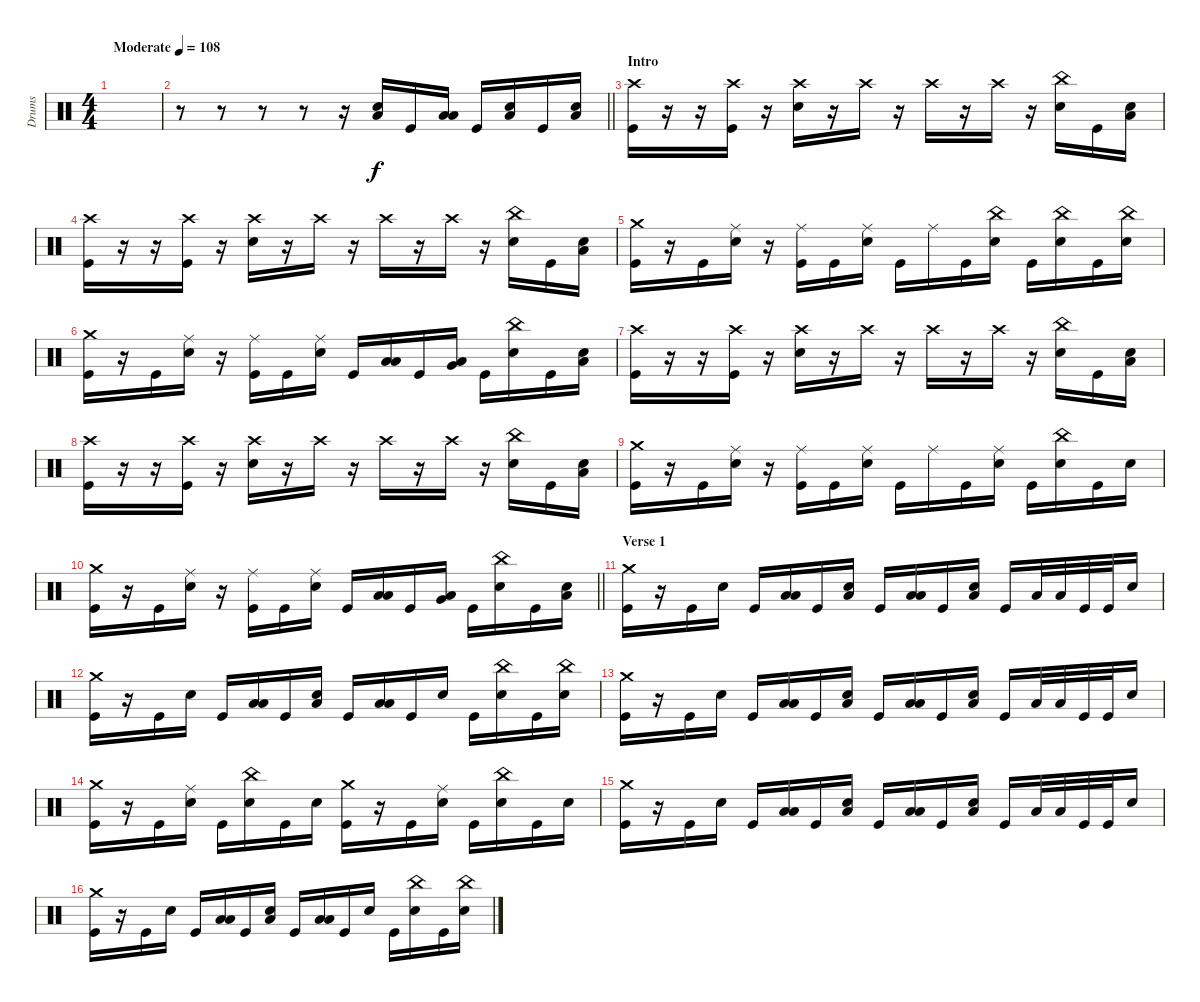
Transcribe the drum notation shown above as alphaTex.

\track ("Drums" "Drums") {instrument percussion}
\staff {score}
\articulation defaults
\ts (4 4)
\tempo (108 "Moderate")
\clef neutral
\ks c
|
\barLineRight lightlight
r.8 r.8 r.8 r.8 r.16 ("Snare (hit) 2" "Low Floor Tom (hit)").16 "Kick (hit)".16 ("Low Tom (hit)" "Low Floor Tom (hit)").16 "Kick (hit)".16 ("Snare (hit) 2" "Low Floor Tom (hit)").16 "Kick (hit)".16 ("Snare (hit) 2" "Low Floor Tom (hit)").16 |
\section ("" "Intro")
("Crash high (hit)" "Kick (hit)").16 r.16 r.16 ("Crash high (hit)" "Kick (hit)").16 r.16 ("Crash high (hit)" "Snare (hit) 2").16 r.16 "Crash high (hit)".16 r.16 "Crash high (hit)".16 r.16 "Crash high (hit)".16 r.16 ("China (hit)" "Snare (hit) 2").16 "Kick (hit)".16 ("Snare (hit) 2" "Low Floor Tom (hit)").16 |
("Crash high (hit)" "Kick (hit)").16 r.16 r.16 ("Crash high (hit)" "Kick (hit)").16 r.16 ("Crash high (hit)" "Snare (hit) 2").16 r.16 "Crash high (hit)".16 r.16 "Crash high (hit)".16 r.16 "Crash high (hit)".16 r.16 ("China (hit)" "Snare (hit) 2").16 "Kick (hit)".16 ("Snare (hit) 2" "Low Floor Tom (hit)").16 |
("Crash medium (hit)" "Kick (hit)").16 r.16 "Kick (hit)".16 ("Ride (middle)" "Snare (hit) 2").16 r.16 ("Ride (middle)" "Kick (hit)").16 "Kick (hit)".16 ("Ride (middle)" "Snare (hit) 2").16 "Kick (hit)".16 "Ride (middle)".16 "Kick (hit)".16 ("China (hit)" "Snare (hit) 2").16 "Kick (hit)".16 ("China (hit)" "Snare (hit) 2").16 "Kick (hit)".16 ("China (hit)" "Snare (hit) 2").16 |
("Crash medium (hit)" "Kick (hit)").16 r.16 "Kick (hit)".16 ("Ride (middle)" "Snare (hit) 2").16 r.16 ("Ride (middle)" "Kick (hit)").16 "Kick (hit)".16 ("Ride (middle)" "Snare (hit) 2").16 "Kick (hit)".16 ("Low Tom (hit)" "Low Floor Tom (hit)").16 "Kick (hit)".16 ("Very Low Tom (hit)" "Low Floor Tom (hit)").16 "Kick (hit)".16 ("China (hit)" "Snare (hit) 2").16 "Kick (hit)".16 ("Snare (hit) 2" "Low Floor Tom (hit)").16 |
("Crash high (hit)" "Kick (hit)").16 r.16 r.16 ("Crash high (hit)" "Kick (hit)").16 r.16 ("Crash high (hit)" "Snare (hit) 2").16 r.16 "Crash high (hit)".16 r.16 "Crash high (hit)".16 r.16 "Crash high (hit)".16 r.16 ("China (hit)" "Snare (hit) 2").16 "Kick (hit)".16 ("Snare (hit) 2" "Low Floor Tom (hit)").16 |
("Crash high (hit)" "Kick (hit)").16 r.16 r.16 ("Crash high (hit)" "Kick (hit)").16 r.16 ("Crash high (hit)" "Snare (hit) 2").16 r.16 "Crash high (hit)".16 r.16 "Crash high (hit)".16 r.16 "Crash high (hit)".16 r.16 ("China (hit)" "Snare (hit) 2").16 "Kick (hit)".16 ("Snare (hit) 2" "Low Floor Tom (hit)").16 |
("Crash medium (hit)" "Kick (hit)").16 r.16 "Kick (hit)".16 ("Ride (middle)" "Snare (hit) 2").16 r.16 ("Ride (middle)" "Kick (hit)").16 "Kick (hit)".16 ("Ride (middle)" "Snare (hit) 2").16 "Kick (hit)".16 "Ride (middle)".16 "Kick (hit)".16 ("Ride (middle)" "Snare (hit) 2").16 "Kick (hit)".16 ("China (hit)" "Snare (hit) 2").16 "Kick (hit)".16 "Snare (hit) 2".16 |
\barLineRight lightlight
("Crash medium (hit)" "Kick (hit)").16 r.16 "Kick (hit)".16 ("Ride (middle)" "Snare (hit) 2").16 r.16 ("Ride (middle)" "Kick (hit)").16 "Kick (hit)".16 ("Ride (middle)" "Snare (hit) 2").16 "Kick (hit)".16 ("Low Tom (hit)" "Low Floor Tom (hit)").16 "Kick (hit)".16 ("Very Low Tom (hit)" "Low Floor Tom (hit)").16 "Kick (hit)".16 ("China (hit)" "Snare (hit) 2").16 "Kick (hit)".16 ("Snare (hit) 2" "Low Floor Tom (hit)").16 |
\section ("" "Verse 1")
("Crash medium (hit)" "Kick (hit)").16 r.16 "Kick (hit)".16 "Snare (hit) 2".16 "Kick (hit)".16 ("Low Tom (hit)" "Low Floor Tom (hit)").16 "Kick (hit)".16 ("Snare (hit) 2" "Low Floor Tom (hit)").16 "Kick (hit)".16 ("Low Tom (hit)" "Low Floor Tom (hit)").16 "Kick (hit)".16 ("Snare (hit) 2" "Low Floor Tom (hit)").16 "Kick (hit)".16 "Low Tom (hit)".32 "Low Floor Tom (hit)".32 "Kick (hit)".32 "Kick (hit)".32 "Snare (hit) 2".16 |
("Crash medium (hit)" "Kick (hit)").16 r.16 "Kick (hit)".16 "Snare (hit) 2".16 "Kick (hit)".16 ("Low Tom (hit)" "Low Floor Tom (hit)").16 "Kick (hit)".16 ("Snare (hit) 2" "Low Floor Tom (hit)").16 "Kick (hit)".16 ("Low Tom (hit)" "Low Floor Tom (hit)").16 "Kick (hit)".16 "Snare (hit) 2".16 "Kick (hit)".16 ("China (hit)" "Snare (hit) 2").16 "Kick (hit)".16 ("China (hit)" "Snare (hit) 2").16 |
("Crash medium (hit)" "Kick (hit)").16 r.16 "Kick (hit)".16 "Snare (hit) 2".16 "Kick (hit)".16 ("Low Tom (hit)" "Low Floor Tom (hit)").16 "Kick (hit)".16 ("Snare (hit) 2" "Low Floor Tom (hit)").16 "Kick (hit)".16 ("Low Tom (hit)" "Low Floor Tom (hit)").16 "Kick (hit)".16 ("Snare (hit) 2" "Low Floor Tom (hit)").16 "Kick (hit)".16 "Low Tom (hit)".32 "Low Floor Tom (hit)".32 "Kick (hit)".32 "Kick (hit)".32 "Snare (hit) 2".16 |
("Crash medium (hit)" "Kick (hit)").16 r.16 "Kick (hit)".16 ("Ride (middle)" "Snare (hit) 2").16 "Kick (hit)".16 ("China (hit)" "Snare (hit) 2").16 "Kick (hit)".16 "Snare (hit) 2".16 ("Crash medium (hit)" "Kick (hit)").16 r.16 "Kick (hit)".16 ("Ride (middle)" "Snare (hit) 2").16 "Kick (hit)".16 ("China (hit)" "Snare (hit) 2").16 "Kick (hit)".16 "Snare (hit) 2".16 |
("Crash medium (hit)" "Kick (hit)").16 r.16 "Kick (hit)".16 "Snare (hit) 2".16 "Kick (hit)".16 ("Low Tom (hit)" "Low Floor Tom (hit)").16 "Kick (hit)".16 ("Snare (hit) 2" "Low Floor Tom (hit)").16 "Kick (hit)".16 ("Low Tom (hit)" "Low Floor Tom (hit)").16 "Kick (hit)".16 ("Snare (hit) 2" "Low Floor Tom (hit)").16 "Kick (hit)".16 "Low Tom (hit)".32 "Low Floor Tom (hit)".32 "Kick (hit)".32 "Kick (hit)".32 "Snare (hit) 2".16 |
("Crash medium (hit)" "Kick (hit)").16 r.16 "Kick (hit)".16 "Snare (hit) 2".16 "Kick (hit)".16 ("Low Tom (hit)" "Low Floor Tom (hit)").16 "Kick (hit)".16 ("Snare (hit) 2" "Low Floor Tom (hit)").16 "Kick (hit)".16 ("Low Tom (hit)" "Low Floor Tom (hit)").16 "Kick (hit)".16 "Snare (hit) 2".16 "Kick (hit)".16 ("China (hit)" "Snare (hit) 2").16 "Kick (hit)".16 ("China (hit)" "Snare (hit) 2").16
